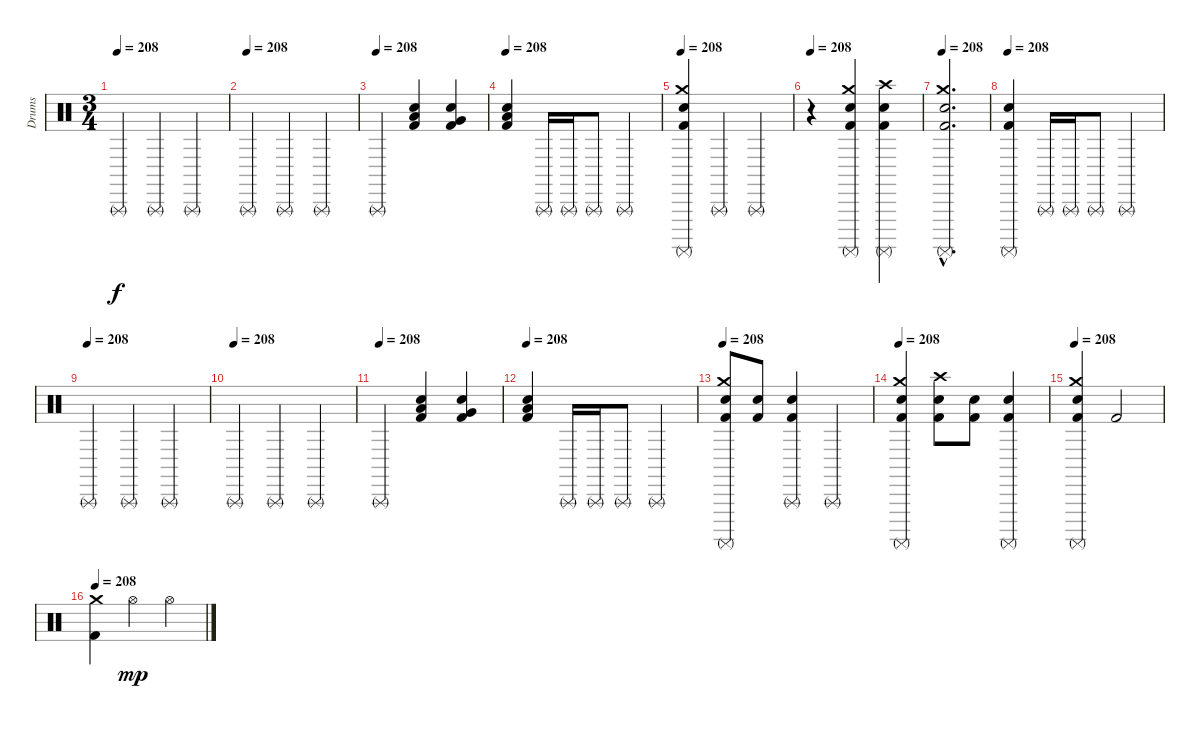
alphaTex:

\track ("Drums" "Drums") {instrument percussion}
\staff {score}
\articulation defaults
\ts (3 4)
\tempo 208
\clef neutral
\ks c "Triangle (rnute)".4{dy f} "Triangle (rnute)".4 "Triangle (rnute)".4
|
\tempo (208)
"Triangle (rnute)".4 "Triangle (rnute)".4 "Triangle (rnute)".4 |
\tempo (208)
"Triangle (rnute)".4 ("Low Tom (hit)" "Electric Snare (hit)" "Kick (hit) 2").4 ("Very Low Tom (hit)" "Electric Snare (hit)" "Kick (hit) 2").4 |
\tempo 208
("Low Tom (hit)" "Electric Snare (hit)" "Kick (hit) 2").4 "Triangle (rnute)".16 "Triangle (rnute)".16 "Triangle (rnute)".8 "Triangle (rnute)".4 |
\tempo 208
("Crash medium (hit)" "Surdo (mute)" "Electric Snare (hit)" "Kick (hit) 2").4 "Triangle (rnute)".4 "Triangle (rnute)".4 |
\tempo 208
r.4 ("Crash medium (hit)" "Surdo (mute)" "Electric Snare (hit)" "Kick (hit) 2").4 ("Crash high (hit)" "Surdo (mute)" "Electric Snare (hit)" "Kick (hit) 2").4 |
\tempo 208
("Crash medium (hit)"{hac} "Surdo (mute)"{hac} "Electric Snare (hit)"{hac} "Kick (hit) 2"{hac}).2{d} |
\tempo 208
("Surdo (mute)" "Electric Snare (hit)" "Kick (hit) 2").4 "Triangle (rnute)".16 "Triangle (rnute)".16 "Triangle (rnute)".8 "Triangle (rnute)".4 |
\tempo (208)
"Triangle (rnute)".4 "Triangle (rnute)".4 "Triangle (rnute)".4 |
\tempo (208)
"Triangle (rnute)".4 "Triangle (rnute)".4 "Triangle (rnute)".4 |
\tempo (208)
"Triangle (rnute)".4 ("Low Tom (hit)" "Electric Snare (hit)" "Kick (hit) 2").4 ("Very Low Tom (hit)" "Electric Snare (hit)" "Kick (hit) 2").4 |
\tempo 208
("Low Tom (hit)" "Electric Snare (hit)" "Kick (hit) 2").4 "Triangle (rnute)".16 "Triangle (rnute)".16 "Triangle (rnute)".8 "Triangle (rnute)".4 |
\tempo 208
("Crash medium (hit)" "Surdo (mute)" "Electric Snare (hit)" "Kick (hit) 2").8 ("Electric Snare (hit)" "Kick (hit) 2").8 ("Triangle (rnute)" "Electric Snare (hit)" "Kick (hit) 2").4 "Triangle (rnute)".4 |
\tempo 208
("Crash medium (hit)" "Surdo (mute)" "Electric Snare (hit)" "Kick (hit) 2").4 ("Crash high (hit)" "Electric Snare (hit)" "Kick (hit) 2").8 ("Electric Snare (hit)" "Kick (hit) 2").8 ("Surdo (mute)" "Electric Snare (hit)" "Kick (hit) 2").4 |
\tempo 208
("Crash medium (hit)" "Surdo (mute)" "Electric Snare (hit)" "Kick (hit) 2").4 "Kick (hit) 2".2 |
\tempo 208
("Crash medium (hit)" "Kick (hit) 2").4 "Hi-Hat (open)".4{dy mp} "Hi-Hat (open)".4
